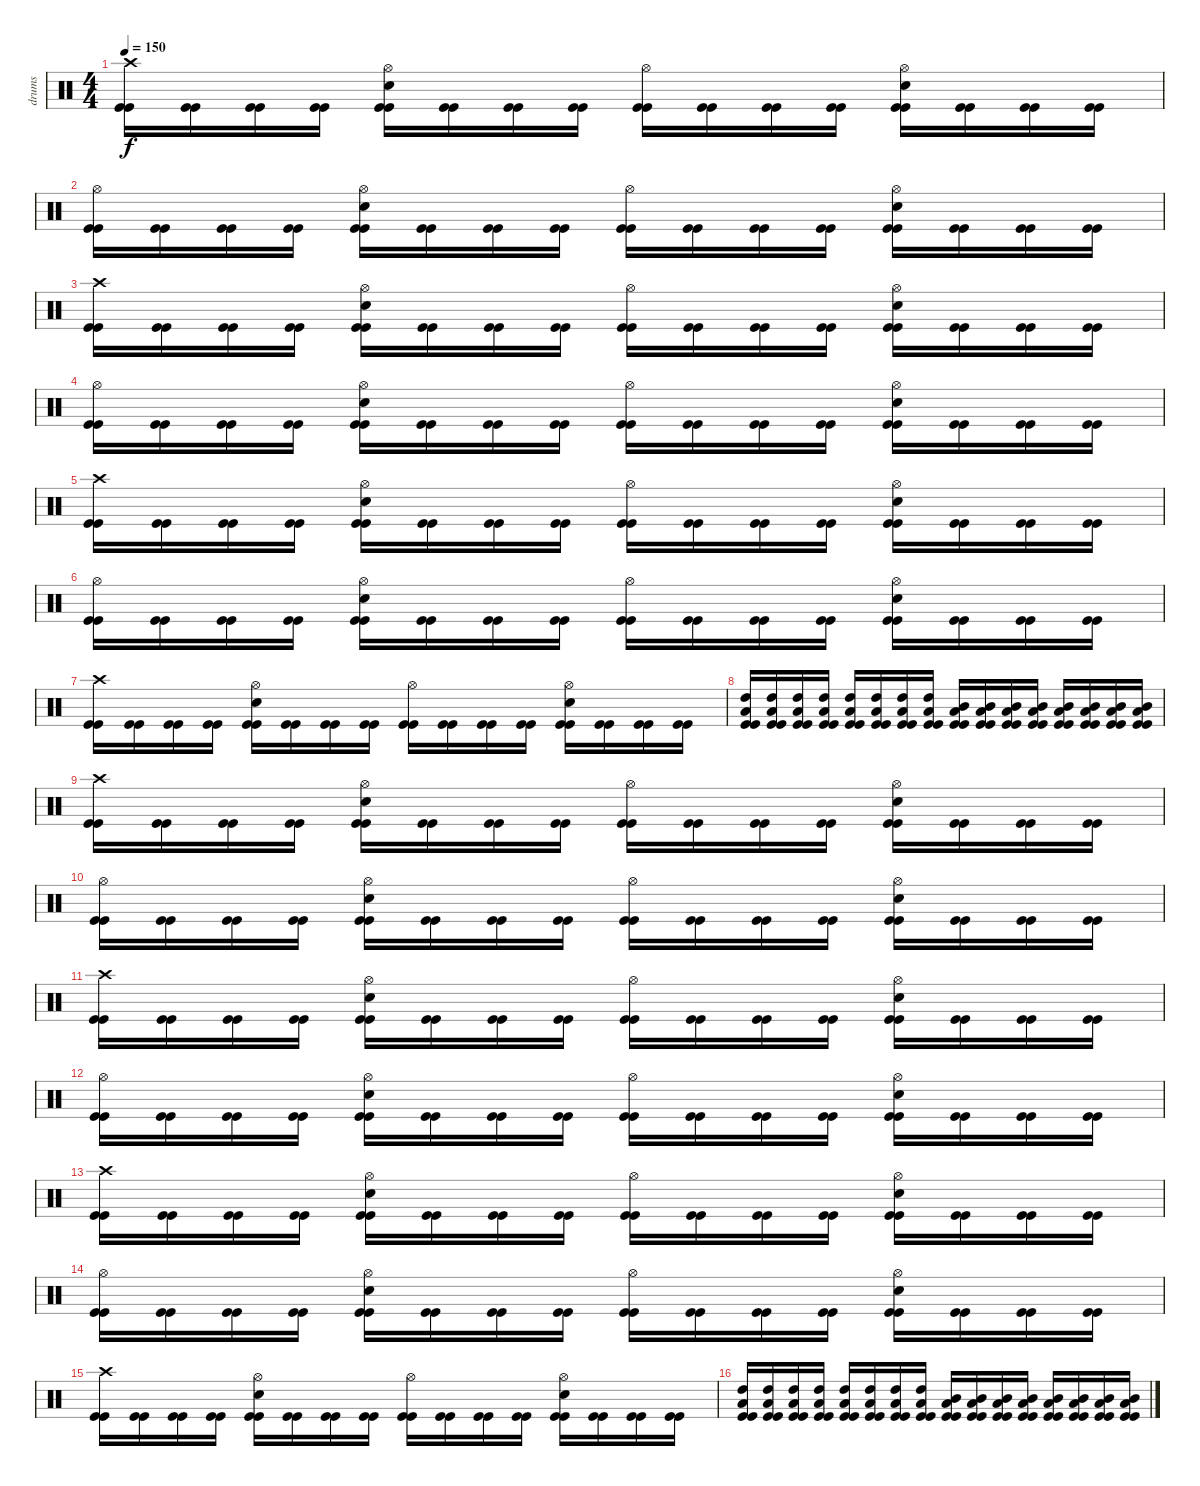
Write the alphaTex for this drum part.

\track ("drums" "drums") {instrument percussion}
\staff {score}
\articulation defaults
\ts (4 4)
\tempo 150
\clef neutral
\ks c
("Crash high (hit)" "Kick (hit)" "Kick (hit)").16{dy f} ("Kick (hit)" "Kick (hit)").16 ("Kick (hit)" "Kick (hit)").16 ("Kick (hit)" "Kick (hit)").16 ("Electric Snare (hit)" "Hi-Hat (open)" "Kick (hit)" "Kick (hit)").16 ("Kick (hit)" "Kick (hit)").16 ("Kick (hit)" "Kick (hit)").16 ("Kick (hit)" "Kick (hit)").16 ("Hi-Hat (open)" "Kick (hit)" "Kick (hit)").16 ("Kick (hit)" "Kick (hit)").16 ("Kick (hit)" "Kick (hit)").16 ("Kick (hit)" "Kick (hit)").16 ("Electric Snare (hit)" "Hi-Hat (open)" "Kick (hit)" "Kick (hit)").16 ("Kick (hit)" "Kick (hit)").16 ("Kick (hit)" "Kick (hit)").16 ("Kick (hit)" "Kick (hit)").16 |
("Hi-Hat (open)" "Kick (hit)" "Kick (hit)").16 ("Kick (hit)" "Kick (hit)").16 ("Kick (hit)" "Kick (hit)").16 ("Kick (hit)" "Kick (hit)").16 ("Electric Snare (hit)" "Hi-Hat (open)" "Kick (hit)" "Kick (hit)").16 ("Kick (hit)" "Kick (hit)").16 ("Kick (hit)" "Kick (hit)").16 ("Kick (hit)" "Kick (hit)").16 ("Hi-Hat (open)" "Kick (hit)" "Kick (hit)").16 ("Kick (hit)" "Kick (hit)").16 ("Kick (hit)" "Kick (hit)").16 ("Kick (hit)" "Kick (hit)").16 ("Electric Snare (hit)" "Hi-Hat (open)" "Kick (hit)" "Kick (hit)").16 ("Kick (hit)" "Kick (hit)").16 ("Kick (hit)" "Kick (hit)").16 ("Kick (hit)" "Kick (hit)").16 |
("Crash high (hit)" "Kick (hit)" "Kick (hit)").16 ("Kick (hit)" "Kick (hit)").16 ("Kick (hit)" "Kick (hit)").16 ("Kick (hit)" "Kick (hit)").16 ("Electric Snare (hit)" "Hi-Hat (open)" "Kick (hit)" "Kick (hit)").16 ("Kick (hit)" "Kick (hit)").16 ("Kick (hit)" "Kick (hit)").16 ("Kick (hit)" "Kick (hit)").16 ("Hi-Hat (open)" "Kick (hit)" "Kick (hit)").16 ("Kick (hit)" "Kick (hit)").16 ("Kick (hit)" "Kick (hit)").16 ("Kick (hit)" "Kick (hit)").16 ("Electric Snare (hit)" "Hi-Hat (open)" "Kick (hit)" "Kick (hit)").16 ("Kick (hit)" "Kick (hit)").16 ("Kick (hit)" "Kick (hit)").16 ("Kick (hit)" "Kick (hit)").16 |
("Hi-Hat (open)" "Kick (hit)" "Kick (hit)").16 ("Kick (hit)" "Kick (hit)").16 ("Kick (hit)" "Kick (hit)").16 ("Kick (hit)" "Kick (hit)").16 ("Electric Snare (hit)" "Hi-Hat (open)" "Kick (hit)" "Kick (hit)").16 ("Kick (hit)" "Kick (hit)").16 ("Kick (hit)" "Kick (hit)").16 ("Kick (hit)" "Kick (hit)").16 ("Hi-Hat (open)" "Kick (hit)" "Kick (hit)").16 ("Kick (hit)" "Kick (hit)").16 ("Kick (hit)" "Kick (hit)").16 ("Kick (hit)" "Kick (hit)").16 ("Electric Snare (hit)" "Hi-Hat (open)" "Kick (hit)" "Kick (hit)").16 ("Kick (hit)" "Kick (hit)").16 ("Kick (hit)" "Kick (hit)").16 ("Kick (hit)" "Kick (hit)").16 |
("Crash high (hit)" "Kick (hit)" "Kick (hit)").16 ("Kick (hit)" "Kick (hit)").16 ("Kick (hit)" "Kick (hit)").16 ("Kick (hit)" "Kick (hit)").16 ("Electric Snare (hit)" "Hi-Hat (open)" "Kick (hit)" "Kick (hit)").16 ("Kick (hit)" "Kick (hit)").16 ("Kick (hit)" "Kick (hit)").16 ("Kick (hit)" "Kick (hit)").16 ("Hi-Hat (open)" "Kick (hit)" "Kick (hit)").16 ("Kick (hit)" "Kick (hit)").16 ("Kick (hit)" "Kick (hit)").16 ("Kick (hit)" "Kick (hit)").16 ("Electric Snare (hit)" "Hi-Hat (open)" "Kick (hit)" "Kick (hit)").16 ("Kick (hit)" "Kick (hit)").16 ("Kick (hit)" "Kick (hit)").16 ("Kick (hit)" "Kick (hit)").16 |
("Hi-Hat (open)" "Kick (hit)" "Kick (hit)").16 ("Kick (hit)" "Kick (hit)").16 ("Kick (hit)" "Kick (hit)").16 ("Kick (hit)" "Kick (hit)").16 ("Electric Snare (hit)" "Hi-Hat (open)" "Kick (hit)" "Kick (hit)").16 ("Kick (hit)" "Kick (hit)").16 ("Kick (hit)" "Kick (hit)").16 ("Kick (hit)" "Kick (hit)").16 ("Hi-Hat (open)" "Kick (hit)" "Kick (hit)").16 ("Kick (hit)" "Kick (hit)").16 ("Kick (hit)" "Kick (hit)").16 ("Kick (hit)" "Kick (hit)").16 ("Electric Snare (hit)" "Hi-Hat (open)" "Kick (hit)" "Kick (hit)").16 ("Kick (hit)" "Kick (hit)").16 ("Kick (hit)" "Kick (hit)").16 ("Kick (hit)" "Kick (hit)").16 |
("Crash high (hit)" "Kick (hit)" "Kick (hit)").16 ("Kick (hit)" "Kick (hit)").16 ("Kick (hit)" "Kick (hit)").16 ("Kick (hit)" "Kick (hit)").16 ("Electric Snare (hit)" "Hi-Hat (open)" "Kick (hit)" "Kick (hit)").16 ("Kick (hit)" "Kick (hit)").16 ("Kick (hit)" "Kick (hit)").16 ("Kick (hit)" "Kick (hit)").16 ("Hi-Hat (open)" "Kick (hit)" "Kick (hit)").16 ("Kick (hit)" "Kick (hit)").16 ("Kick (hit)" "Kick (hit)").16 ("Kick (hit)" "Kick (hit)").16 ("Electric Snare (hit)" "Hi-Hat (open)" "Kick (hit)" "Kick (hit)").16 ("Kick (hit)" "Kick (hit)").16 ("Kick (hit)" "Kick (hit)").16 ("Kick (hit)" "Kick (hit)").16 |
("High Tom (hit)" "Low Tom (hit)" "Kick (hit)" "Kick (hit)").16 ("High Tom (hit)" "Low Tom (hit)" "Kick (hit)" "Kick (hit)").16 ("High Tom (hit)" "Low Tom (hit)" "Kick (hit)" "Kick (hit)").16 ("High Tom (hit)" "Low Tom (hit)" "Kick (hit)" "Kick (hit)").16 ("High Tom (hit)" "Low Tom (hit)" "Kick (hit)" "Kick (hit)").16 ("High Tom (hit)" "Low Tom (hit)" "Kick (hit)" "Kick (hit)").16 ("High Tom (hit)" "Low Tom (hit)" "Kick (hit)" "Kick (hit)").16 ("High Tom (hit)" "Low Tom (hit)" "Kick (hit)" "Kick (hit)").16 ("Mid Tom (hit)" "Low Tom (hit)" "Kick (hit)" "Kick (hit)").16 ("Mid Tom (hit)" "Low Tom (hit)" "Kick (hit)" "Kick (hit)").16 ("Mid Tom (hit)" "Low Tom (hit)" "Kick (hit)" "Kick (hit)").16 ("Mid Tom (hit)" "Low Tom (hit)" "Kick (hit)" "Kick (hit)").16 ("Mid Tom (hit)" "Low Tom (hit)" "Kick (hit)" "Kick (hit)").16 ("Mid Tom (hit)" "Low Tom (hit)" "Kick (hit)" "Kick (hit)").16 ("Mid Tom (hit)" "Low Tom (hit)" "Kick (hit)" "Kick (hit)").16 ("Mid Tom (hit)" "Low Tom (hit)" "Kick (hit)" "Kick (hit)").16 |
("Crash high (hit)" "Kick (hit)" "Kick (hit)").16 ("Kick (hit)" "Kick (hit)").16 ("Kick (hit)" "Kick (hit)").16 ("Kick (hit)" "Kick (hit)").16 ("Electric Snare (hit)" "Hi-Hat (open)" "Kick (hit)" "Kick (hit)").16 ("Kick (hit)" "Kick (hit)").16 ("Kick (hit)" "Kick (hit)").16 ("Kick (hit)" "Kick (hit)").16 ("Hi-Hat (open)" "Kick (hit)" "Kick (hit)").16 ("Kick (hit)" "Kick (hit)").16 ("Kick (hit)" "Kick (hit)").16 ("Kick (hit)" "Kick (hit)").16 ("Electric Snare (hit)" "Hi-Hat (open)" "Kick (hit)" "Kick (hit)").16 ("Kick (hit)" "Kick (hit)").16 ("Kick (hit)" "Kick (hit)").16 ("Kick (hit)" "Kick (hit)").16 |
("Hi-Hat (open)" "Kick (hit)" "Kick (hit)").16 ("Kick (hit)" "Kick (hit)").16 ("Kick (hit)" "Kick (hit)").16 ("Kick (hit)" "Kick (hit)").16 ("Electric Snare (hit)" "Hi-Hat (open)" "Kick (hit)" "Kick (hit)").16 ("Kick (hit)" "Kick (hit)").16 ("Kick (hit)" "Kick (hit)").16 ("Kick (hit)" "Kick (hit)").16 ("Hi-Hat (open)" "Kick (hit)" "Kick (hit)").16 ("Kick (hit)" "Kick (hit)").16 ("Kick (hit)" "Kick (hit)").16 ("Kick (hit)" "Kick (hit)").16 ("Electric Snare (hit)" "Hi-Hat (open)" "Kick (hit)" "Kick (hit)").16 ("Kick (hit)" "Kick (hit)").16 ("Kick (hit)" "Kick (hit)").16 ("Kick (hit)" "Kick (hit)").16 |
("Crash high (hit)" "Kick (hit)" "Kick (hit)").16 ("Kick (hit)" "Kick (hit)").16 ("Kick (hit)" "Kick (hit)").16 ("Kick (hit)" "Kick (hit)").16 ("Electric Snare (hit)" "Hi-Hat (open)" "Kick (hit)" "Kick (hit)").16 ("Kick (hit)" "Kick (hit)").16 ("Kick (hit)" "Kick (hit)").16 ("Kick (hit)" "Kick (hit)").16 ("Hi-Hat (open)" "Kick (hit)" "Kick (hit)").16 ("Kick (hit)" "Kick (hit)").16 ("Kick (hit)" "Kick (hit)").16 ("Kick (hit)" "Kick (hit)").16 ("Electric Snare (hit)" "Hi-Hat (open)" "Kick (hit)" "Kick (hit)").16 ("Kick (hit)" "Kick (hit)").16 ("Kick (hit)" "Kick (hit)").16 ("Kick (hit)" "Kick (hit)").16 |
("Hi-Hat (open)" "Kick (hit)" "Kick (hit)").16 ("Kick (hit)" "Kick (hit)").16 ("Kick (hit)" "Kick (hit)").16 ("Kick (hit)" "Kick (hit)").16 ("Electric Snare (hit)" "Hi-Hat (open)" "Kick (hit)" "Kick (hit)").16 ("Kick (hit)" "Kick (hit)").16 ("Kick (hit)" "Kick (hit)").16 ("Kick (hit)" "Kick (hit)").16 ("Hi-Hat (open)" "Kick (hit)" "Kick (hit)").16 ("Kick (hit)" "Kick (hit)").16 ("Kick (hit)" "Kick (hit)").16 ("Kick (hit)" "Kick (hit)").16 ("Electric Snare (hit)" "Hi-Hat (open)" "Kick (hit)" "Kick (hit)").16 ("Kick (hit)" "Kick (hit)").16 ("Kick (hit)" "Kick (hit)").16 ("Kick (hit)" "Kick (hit)").16 |
("Crash high (hit)" "Kick (hit)" "Kick (hit)").16 ("Kick (hit)" "Kick (hit)").16 ("Kick (hit)" "Kick (hit)").16 ("Kick (hit)" "Kick (hit)").16 ("Electric Snare (hit)" "Hi-Hat (open)" "Kick (hit)" "Kick (hit)").16 ("Kick (hit)" "Kick (hit)").16 ("Kick (hit)" "Kick (hit)").16 ("Kick (hit)" "Kick (hit)").16 ("Hi-Hat (open)" "Kick (hit)" "Kick (hit)").16 ("Kick (hit)" "Kick (hit)").16 ("Kick (hit)" "Kick (hit)").16 ("Kick (hit)" "Kick (hit)").16 ("Electric Snare (hit)" "Hi-Hat (open)" "Kick (hit)" "Kick (hit)").16 ("Kick (hit)" "Kick (hit)").16 ("Kick (hit)" "Kick (hit)").16 ("Kick (hit)" "Kick (hit)").16 |
("Hi-Hat (open)" "Kick (hit)" "Kick (hit)").16 ("Kick (hit)" "Kick (hit)").16 ("Kick (hit)" "Kick (hit)").16 ("Kick (hit)" "Kick (hit)").16 ("Electric Snare (hit)" "Hi-Hat (open)" "Kick (hit)" "Kick (hit)").16 ("Kick (hit)" "Kick (hit)").16 ("Kick (hit)" "Kick (hit)").16 ("Kick (hit)" "Kick (hit)").16 ("Hi-Hat (open)" "Kick (hit)" "Kick (hit)").16 ("Kick (hit)" "Kick (hit)").16 ("Kick (hit)" "Kick (hit)").16 ("Kick (hit)" "Kick (hit)").16 ("Electric Snare (hit)" "Hi-Hat (open)" "Kick (hit)" "Kick (hit)").16 ("Kick (hit)" "Kick (hit)").16 ("Kick (hit)" "Kick (hit)").16 ("Kick (hit)" "Kick (hit)").16 |
("Crash high (hit)" "Kick (hit)" "Kick (hit)").16 ("Kick (hit)" "Kick (hit)").16 ("Kick (hit)" "Kick (hit)").16 ("Kick (hit)" "Kick (hit)").16 ("Electric Snare (hit)" "Hi-Hat (open)" "Kick (hit)" "Kick (hit)").16 ("Kick (hit)" "Kick (hit)").16 ("Kick (hit)" "Kick (hit)").16 ("Kick (hit)" "Kick (hit)").16 ("Hi-Hat (open)" "Kick (hit)" "Kick (hit)").16 ("Kick (hit)" "Kick (hit)").16 ("Kick (hit)" "Kick (hit)").16 ("Kick (hit)" "Kick (hit)").16 ("Electric Snare (hit)" "Hi-Hat (open)" "Kick (hit)" "Kick (hit)").16 ("Kick (hit)" "Kick (hit)").16 ("Kick (hit)" "Kick (hit)").16 ("Kick (hit)" "Kick (hit)").16 |
("High Tom (hit)" "Low Tom (hit)" "Kick (hit)" "Kick (hit)").16 ("High Tom (hit)" "Low Tom (hit)" "Kick (hit)" "Kick (hit)").16 ("High Tom (hit)" "Low Tom (hit)" "Kick (hit)" "Kick (hit)").16 ("High Tom (hit)" "Low Tom (hit)" "Kick (hit)" "Kick (hit)").16 ("High Tom (hit)" "Low Tom (hit)" "Kick (hit)" "Kick (hit)").16 ("High Tom (hit)" "Low Tom (hit)" "Kick (hit)" "Kick (hit)").16 ("High Tom (hit)" "Low Tom (hit)" "Kick (hit)" "Kick (hit)").16 ("High Tom (hit)" "Low Tom (hit)" "Kick (hit)" "Kick (hit)").16 ("Mid Tom (hit)" "Low Tom (hit)" "Kick (hit)" "Kick (hit)").16 ("Mid Tom (hit)" "Low Tom (hit)" "Kick (hit)" "Kick (hit)").16 ("Mid Tom (hit)" "Low Tom (hit)" "Kick (hit)" "Kick (hit)").16 ("Mid Tom (hit)" "Low Tom (hit)" "Kick (hit)" "Kick (hit)").16 ("Mid Tom (hit)" "Low Tom (hit)" "Kick (hit)" "Kick (hit)").16 ("Mid Tom (hit)" "Low Tom (hit)" "Kick (hit)" "Kick (hit)").16 ("Mid Tom (hit)" "Low Tom (hit)" "Kick (hit)" "Kick (hit)").16 ("Mid Tom (hit)" "Low Tom (hit)" "Kick (hit)" "Kick (hit)").16
